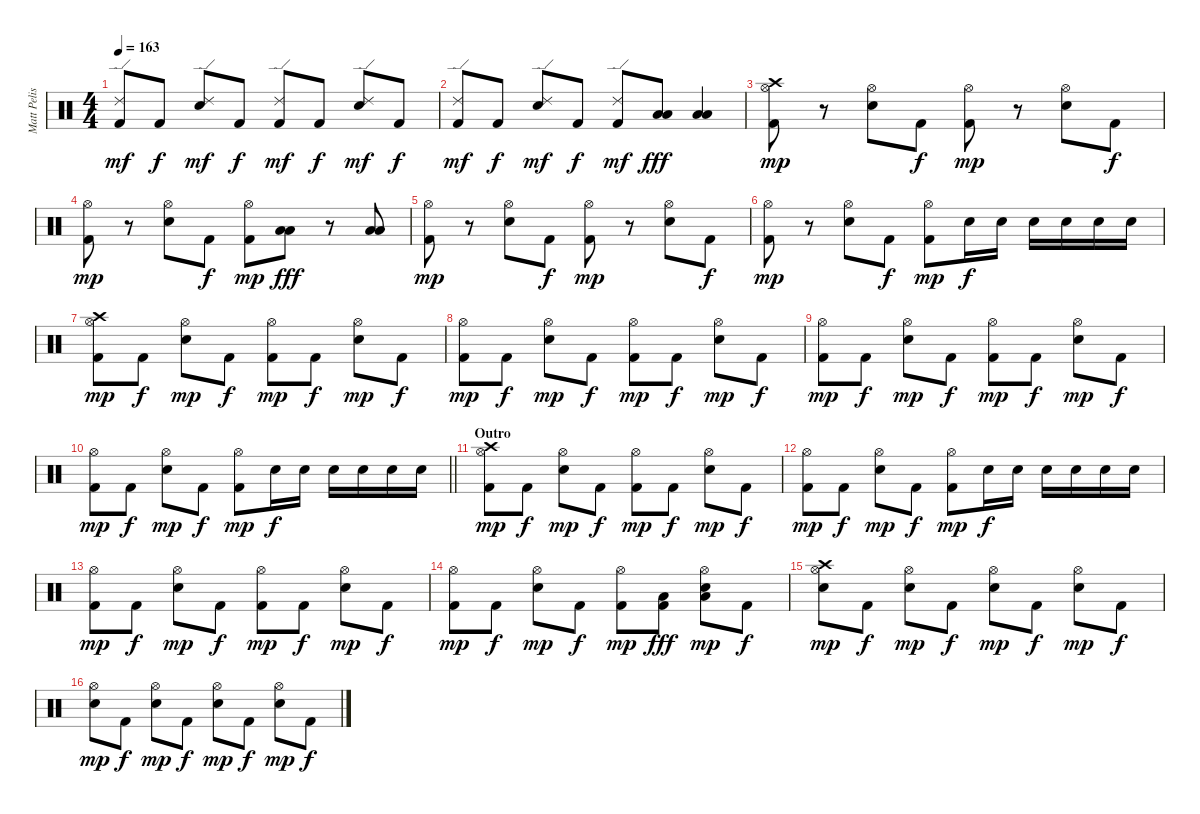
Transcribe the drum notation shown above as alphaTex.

\track ("Matt Pelissier (Drums)" "Matt Pelis") {instrument percussion}
\staff {score}
\articulation defaults
\ts (4 4)
\tempo 163
\clef neutral
\ks c
("Ride (edge) 2" "Kick (hit) 2").8{dy mf} "Kick (hit) 2".8{dy f} ("Ride (edge) 2" "Electric Snare (hit)").8{dy mf} "Kick (hit) 2".8{dy f} ("Ride (edge) 2" "Kick (hit) 2").8{dy mf} "Kick (hit) 2".8{dy f} ("Ride (edge) 2" "Electric Snare (hit)").8{dy mf} "Kick (hit) 2".8{dy f} |
("Ride (edge) 2" "Kick (hit) 2").8{dy mf} "Kick (hit) 2".8{dy f} ("Ride (edge) 2" "Electric Snare (hit)").8{dy mf} "Kick (hit) 2".8{dy f} ("Ride (edge) 2" "Kick (hit) 2").8{dy mf} ("Low Floor Tom (hit)" "Low Floor Tom (hit)").8{dy fff} ("Low Floor Tom (hit)" "Low Floor Tom (hit)").4 |
("Crash high (hit)" "Hi-Hat (open)" "Kick (hit) 2").8{dy mp} r.8 ("Hi-Hat (open)" "Electric Snare (hit)").8 "Kick (hit) 2".8{dy f} ("Hi-Hat (open)" "Kick (hit) 2").8{dy mp} r.8 ("Hi-Hat (open)" "Electric Snare (hit)").8 "Kick (hit) 2".8{dy f} |
("Hi-Hat (open)" "Kick (hit) 2").8{dy mp} r.8 ("Hi-Hat (open)" "Electric Snare (hit)").8 "Kick (hit) 2".8{dy f} ("Hi-Hat (open)" "Kick (hit) 2").8{dy mp} ("Low Floor Tom (hit)" "Low Floor Tom (hit)").8{dy fff} r.8 ("Low Floor Tom (hit)" "Low Floor Tom (hit)").8 |
("Hi-Hat (open)" "Kick (hit) 2").8{dy mp} r.8 ("Hi-Hat (open)" "Electric Snare (hit)").8 "Kick (hit) 2".8{dy f} ("Hi-Hat (open)" "Kick (hit) 2").8{dy mp} r.8 ("Hi-Hat (open)" "Electric Snare (hit)").8 "Kick (hit) 2".8{dy f} |
("Hi-Hat (open)" "Kick (hit) 2").8{dy mp} r.8 ("Hi-Hat (open)" "Electric Snare (hit)").8 "Kick (hit) 2".8{dy f} ("Hi-Hat (open)" "Kick (hit) 2").8{dy mp} "Electric Snare (hit)".16{dy f} "Electric Snare (hit)".16 "Electric Snare (hit)".16 "Electric Snare (hit)".16 "Electric Snare (hit)".16 "Electric Snare (hit)".16 |
("Crash high (hit)" "Hi-Hat (open)" "Kick (hit) 2").8{dy mp} "Kick (hit) 2".8{dy f} ("Hi-Hat (open)" "Electric Snare (hit)").8{dy mp} "Kick (hit) 2".8{dy f} ("Hi-Hat (open)" "Kick (hit) 2").8{dy mp} "Kick (hit) 2".8{dy f} ("Hi-Hat (open)" "Electric Snare (hit)").8{dy mp} "Kick (hit) 2".8{dy f} |
("Hi-Hat (open)" "Kick (hit) 2").8{dy mp} "Kick (hit) 2".8{dy f} ("Hi-Hat (open)" "Electric Snare (hit)").8{dy mp} "Kick (hit) 2".8{dy f} ("Hi-Hat (open)" "Kick (hit) 2").8{dy mp} "Kick (hit) 2".8{dy f} ("Hi-Hat (open)" "Electric Snare (hit)").8{dy mp} "Kick (hit) 2".8{dy f} |
("Hi-Hat (open)" "Kick (hit) 2").8{dy mp} "Kick (hit) 2".8{dy f} ("Hi-Hat (open)" "Electric Snare (hit)").8{dy mp} "Kick (hit) 2".8{dy f} ("Hi-Hat (open)" "Kick (hit) 2").8{dy mp} "Kick (hit) 2".8{dy f} ("Hi-Hat (open)" "Electric Snare (hit)").8{dy mp} "Kick (hit) 2".8{dy f} |
\barLineRight lightlight
("Hi-Hat (open)" "Kick (hit) 2").8{dy mp} "Kick (hit) 2".8{dy f} ("Hi-Hat (open)" "Electric Snare (hit)").8{dy mp} "Kick (hit) 2".8{dy f} ("Hi-Hat (open)" "Kick (hit) 2").8{dy mp} "Electric Snare (hit)".16{dy f} "Electric Snare (hit)".16 "Electric Snare (hit)".16 "Electric Snare (hit)".16 "Electric Snare (hit)".16 "Electric Snare (hit)".16 |
\section ("" "Outro")
("Crash high (hit)" "Hi-Hat (open)" "Kick (hit) 2").8{dy mp} "Kick (hit) 2".8{dy f} ("Hi-Hat (open)" "Electric Snare (hit)").8{dy mp} "Kick (hit) 2".8{dy f} ("Hi-Hat (open)" "Kick (hit) 2").8{dy mp} "Kick (hit) 2".8{dy f} ("Hi-Hat (open)" "Electric Snare (hit)").8{dy mp} "Kick (hit) 2".8{dy f} |
("Hi-Hat (open)" "Kick (hit) 2").8{dy mp} "Kick (hit) 2".8{dy f} ("Hi-Hat (open)" "Electric Snare (hit)").8{dy mp} "Kick (hit) 2".8{dy f} ("Hi-Hat (open)" "Kick (hit) 2").8{dy mp} "Electric Snare (hit)".16{dy f} "Electric Snare (hit)".16 "Electric Snare (hit)".16 "Electric Snare (hit)".16 "Electric Snare (hit)".16 "Electric Snare (hit)".16 |
("Hi-Hat (open)" "Kick (hit) 2").8{dy mp} "Kick (hit) 2".8{dy f} ("Hi-Hat (open)" "Electric Snare (hit)").8{dy mp} "Kick (hit) 2".8{dy f} ("Hi-Hat (open)" "Kick (hit) 2").8{dy mp} "Kick (hit) 2".8{dy f} ("Hi-Hat (open)" "Electric Snare (hit)").8{dy mp} "Kick (hit) 2".8{dy f} |
("Hi-Hat (open)" "Kick (hit) 2").8{dy mp} "Kick (hit) 2".8{dy f} ("Hi-Hat (open)" "Electric Snare (hit)").8{dy mp} "Kick (hit) 2".8{dy f} ("Hi-Hat (open)" "Kick (hit) 2").8{dy mp} ("Low Floor Tom (hit)" "Kick (hit) 2").8{dy fff} ("Low Floor Tom (hit)" "Hi-Hat (open)" "Electric Snare (hit)").8{dy mp} "Kick (hit) 2".8{dy f} |
("Crash high (hit)" "Hi-Hat (open)" "Electric Snare (hit)").8{dy mp} "Kick (hit) 2".8{dy f} ("Hi-Hat (open)" "Electric Snare (hit)").8{dy mp} "Kick (hit) 2".8{dy f} ("Hi-Hat (open)" "Electric Snare (hit)").8{dy mp} "Kick (hit) 2".8{dy f} ("Hi-Hat (open)" "Electric Snare (hit)").8{dy mp} "Kick (hit) 2".8{dy f} |
("Hi-Hat (open)" "Electric Snare (hit)").8{dy mp} "Kick (hit) 2".8{dy f} ("Hi-Hat (open)" "Electric Snare (hit)").8{dy mp} "Kick (hit) 2".8{dy f} ("Hi-Hat (open)" "Electric Snare (hit)").8{dy mp} "Kick (hit) 2".8{dy f} ("Hi-Hat (open)" "Electric Snare (hit)").8{dy mp} "Kick (hit) 2".8{dy f}
